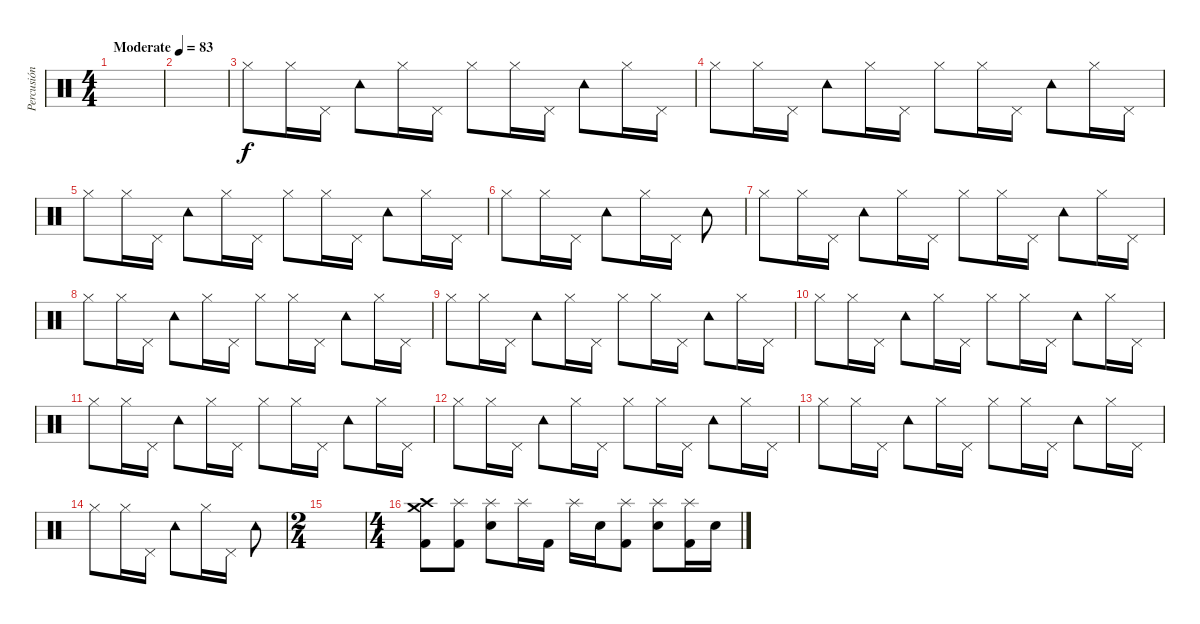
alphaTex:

\track ("Percusión" "Percusión") {instrument percussion}
\staff {score}
\articulation defaults
\ts (4 4)
\tempo (83 "Moderate")
\tempo 82
\tempo (83 "Moderate")
\clef neutral
\ks c
|
|
"Hi-Hat (closed)".8 "Hi-Hat (closed)".16 "Pedal Hi-Hat (hit)".16 "Tambourine (hit)".8 "Hi-Hat (closed)".16 "Pedal Hi-Hat (hit)".16 "Hi-Hat (closed)".8 "Hi-Hat (closed)".16 "Pedal Hi-Hat (hit)".16 "Tambourine (hit)".8 "Hi-Hat (closed)".16 "Pedal Hi-Hat (hit)".16 |
"Hi-Hat (closed)".8 "Hi-Hat (closed)".16 "Pedal Hi-Hat (hit)".16 "Tambourine (hit)".8 "Hi-Hat (closed)".16 "Pedal Hi-Hat (hit)".16 "Hi-Hat (closed)".8 "Hi-Hat (closed)".16 "Pedal Hi-Hat (hit)".16 "Tambourine (hit)".8 "Hi-Hat (closed)".16 "Pedal Hi-Hat (hit)".16 |
"Hi-Hat (closed)".8 "Hi-Hat (closed)".16 "Pedal Hi-Hat (hit)".16 "Tambourine (hit)".8 "Hi-Hat (closed)".16 "Pedal Hi-Hat (hit)".16 "Hi-Hat (closed)".8 "Hi-Hat (closed)".16 "Pedal Hi-Hat (hit)".16 "Tambourine (hit)".8 "Hi-Hat (closed)".16 "Pedal Hi-Hat (hit)".16 |
"Hi-Hat (closed)".8 "Hi-Hat (closed)".16 "Pedal Hi-Hat (hit)".16 "Tambourine (hit)".8 "Hi-Hat (closed)".16 "Pedal Hi-Hat (hit)".16 "Tambourine (hit)".8 |
"Hi-Hat (closed)".8 "Hi-Hat (closed)".16 "Pedal Hi-Hat (hit)".16 "Tambourine (hit)".8 "Hi-Hat (closed)".16 "Pedal Hi-Hat (hit)".16 "Hi-Hat (closed)".8 "Hi-Hat (closed)".16 "Pedal Hi-Hat (hit)".16 "Tambourine (hit)".8 "Hi-Hat (closed)".16 "Pedal Hi-Hat (hit)".16 |
"Hi-Hat (closed)".8 "Hi-Hat (closed)".16 "Pedal Hi-Hat (hit)".16 "Tambourine (hit)".8 "Hi-Hat (closed)".16 "Pedal Hi-Hat (hit)".16 "Hi-Hat (closed)".8 "Hi-Hat (closed)".16 "Pedal Hi-Hat (hit)".16 "Tambourine (hit)".8 "Hi-Hat (closed)".16 "Pedal Hi-Hat (hit)".16 |
"Hi-Hat (closed)".8 "Hi-Hat (closed)".16 "Pedal Hi-Hat (hit)".16 "Tambourine (hit)".8 "Hi-Hat (closed)".16 "Pedal Hi-Hat (hit)".16 "Hi-Hat (closed)".8 "Hi-Hat (closed)".16 "Pedal Hi-Hat (hit)".16 "Tambourine (hit)".8 "Hi-Hat (closed)".16 "Pedal Hi-Hat (hit)".16 |
"Hi-Hat (closed)".8 "Hi-Hat (closed)".16 "Pedal Hi-Hat (hit)".16 "Tambourine (hit)".8 "Hi-Hat (closed)".16 "Pedal Hi-Hat (hit)".16 "Hi-Hat (closed)".8 "Hi-Hat (closed)".16 "Pedal Hi-Hat (hit)".16 "Tambourine (hit)".8 "Hi-Hat (closed)".16 "Pedal Hi-Hat (hit)".16 |
"Hi-Hat (closed)".8 "Hi-Hat (closed)".16 "Pedal Hi-Hat (hit)".16 "Tambourine (hit)".8 "Hi-Hat (closed)".16 "Pedal Hi-Hat (hit)".16 "Hi-Hat (closed)".8 "Hi-Hat (closed)".16 "Pedal Hi-Hat (hit)".16 "Tambourine (hit)".8 "Hi-Hat (closed)".16 "Pedal Hi-Hat (hit)".16 |
"Hi-Hat (closed)".8 "Hi-Hat (closed)".16 "Pedal Hi-Hat (hit)".16 "Tambourine (hit)".8 "Hi-Hat (closed)".16 "Pedal Hi-Hat (hit)".16 "Hi-Hat (closed)".8 "Hi-Hat (closed)".16 "Pedal Hi-Hat (hit)".16 "Tambourine (hit)".8 "Hi-Hat (closed)".16 "Pedal Hi-Hat (hit)".16 |
"Hi-Hat (closed)".8 "Hi-Hat (closed)".16 "Pedal Hi-Hat (hit)".16 "Tambourine (hit)".8 "Hi-Hat (closed)".16 "Pedal Hi-Hat (hit)".16 "Hi-Hat (closed)".8 "Hi-Hat (closed)".16 "Pedal Hi-Hat (hit)".16 "Tambourine (hit)".8 "Hi-Hat (closed)".16 "Pedal Hi-Hat (hit)".16 |
"Hi-Hat (closed)".8 "Hi-Hat (closed)".16 "Pedal Hi-Hat (hit)".16 "Tambourine (hit)".8 "Hi-Hat (closed)".16 "Pedal Hi-Hat (hit)".16 "Tambourine (hit)".8 |
\ts (2 4)
|
\ts (4 4)
("Crash medium (hit)" "Crash high (hit)" "Kick (hit) 2").8 ("Splash (hit)" "Kick (hit) 2").8 ("Splash (hit)" "Electric Snare (hit)").8 "Splash (hit)".16 "Kick (hit) 2".16 "Splash (hit)".16 "Electric Snare (hit)".16 ("Splash (hit)" "Kick (hit) 2").8 ("Splash (hit)" "Electric Snare (hit)").8 ("Splash (hit)" "Kick (hit) 2").16 "Electric Snare (hit)".16
